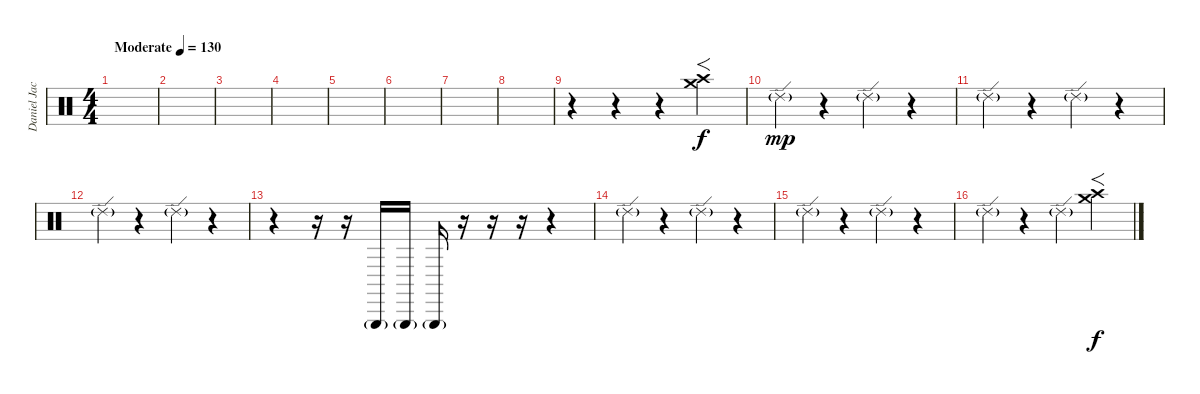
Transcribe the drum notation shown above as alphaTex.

\track ("Daniel Jacques Louis " "Daniel Jac") {instrument percussion}
\staff {score}
\articulation defaults
\ts (4 4)
\tempo (130 "Moderate")
\clef neutral
\ks c
|
|
|
|
|
|
|
|
r.4 r.4 r.4 ("Crash high (hit)" "Crash medium (hit)").4{f} |
"Ride (edge) 2"{g}.4{dy mp} r.4 "Ride (edge) 2"{g}.4 r.4 |
"Ride (edge) 2"{g}.4 r.4 "Ride (edge) 2"{g}.4 r.4 |
"Ride (edge) 2"{g}.4 r.4 "Ride (edge) 2"{g}.4 r.4 |
r.4 r.16 r.16 "Triangle (hit)"{g}.16 "Triangle (hit)"{g}.16 "Triangle (hit)"{g}.16 r.16 r.16 r.16 r.4 |
"Ride (edge) 2"{g}.4 r.4 "Ride (edge) 2"{g}.4 r.4 |
"Ride (edge) 2"{g}.4 r.4 "Ride (edge) 2"{g}.4 r.4 |
"Ride (edge) 2"{g}.4 r.4 "Ride (edge) 2"{g}.4 ("Crash high (hit)" "Crash medium (hit)").4{f dy f}
